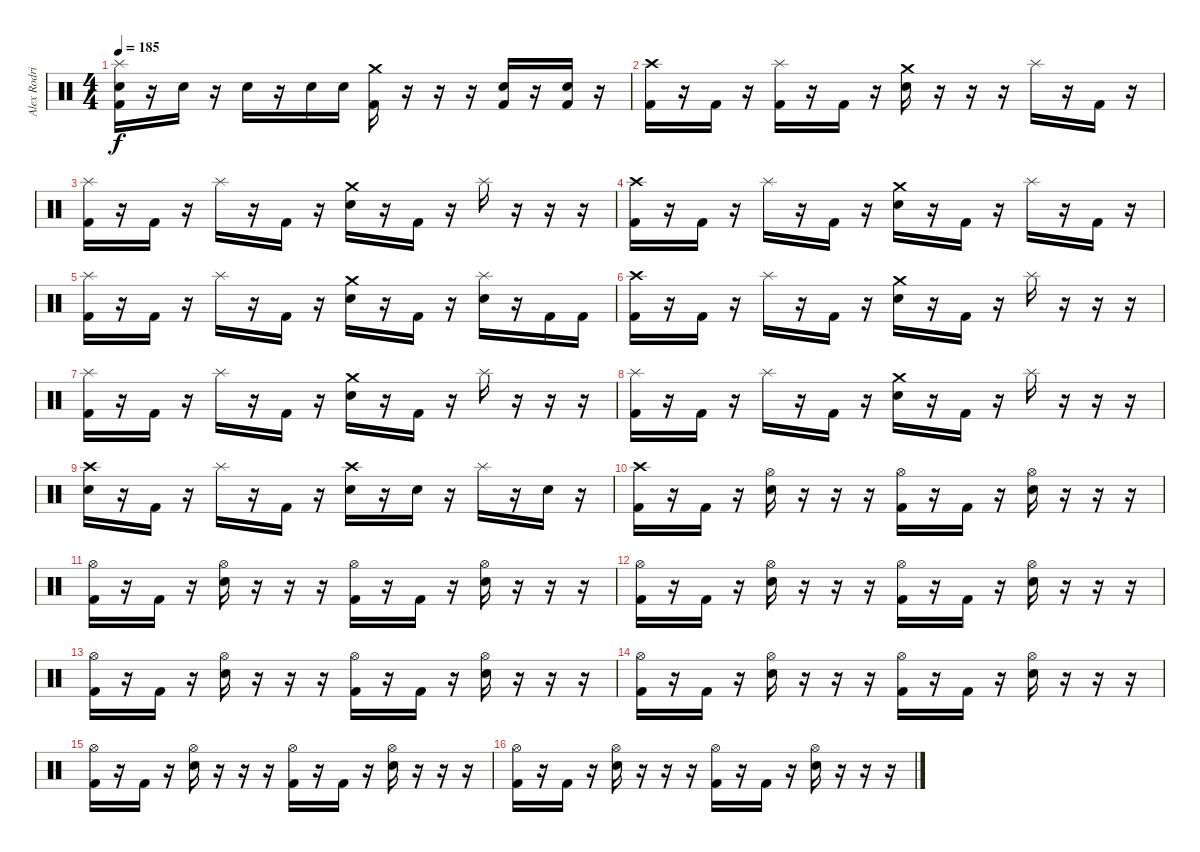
\track ("Alex Rodriguez" "Alex Rodri") {instrument percussion}
\staff {score}
\articulation defaults
\ts (4 4)
\tempo 185
\clef neutral
\ks c
("Splash (hit)" "Electric Snare (hit)" "Kick (hit) 2").16{dy f} r.16 "Electric Snare (hit)".16 r.16 "Electric Snare (hit)".16 r.16 "Electric Snare (hit)".16 "Electric Snare (hit)".16 ("Crash medium (hit)" "Kick (hit) 2").16 r.16 r.16 r.16 ("Electric Snare (hit)" "Kick (hit) 2").16 r.16 ("Electric Snare (hit)" "Kick (hit) 2").16 r.16 |
("Crash high (hit)" "Kick (hit) 2").16 r.16 "Kick (hit) 2".16 r.16 ("Splash (hit)" "Kick (hit) 2").16 r.16 "Kick (hit) 2".16 r.16 ("Crash medium (hit)" "Electric Snare (hit)").16 r.16 r.16 r.16 "Splash (hit)".16 r.16 "Kick (hit) 2".16 r.16 |
("Splash (hit)" "Kick (hit) 2").16 r.16 "Kick (hit) 2".16 r.16 "Splash (hit)".16 r.16 "Kick (hit) 2".16 r.16 ("Crash medium (hit)" "Electric Snare (hit)").16 r.16 "Kick (hit) 2".16 r.16 "Splash (hit)".16 r.16 r.16 r.16 |
("Crash high (hit)" "Kick (hit) 2").16 r.16 "Kick (hit) 2".16 r.16 "Splash (hit)".16 r.16 "Kick (hit) 2".16 r.16 ("Crash medium (hit)" "Electric Snare (hit)").16 r.16 "Kick (hit) 2".16 r.16 "Splash (hit)".16 r.16 "Kick (hit) 2".16 r.16 |
("Splash (hit)" "Kick (hit) 2").16 r.16 "Kick (hit) 2".16 r.16 "Splash (hit)".16 r.16 "Kick (hit) 2".16 r.16 ("Crash medium (hit)" "Electric Snare (hit)").16 r.16 "Kick (hit) 2".16 r.16 ("Splash (hit)" "Electric Snare (hit)").16 r.16 "Kick (hit) 2".16 "Kick (hit) 2".16 |
("Crash high (hit)" "Kick (hit) 2").16 r.16 "Kick (hit) 2".16 r.16 "Splash (hit)".16 r.16 "Kick (hit) 2".16 r.16 ("Crash medium (hit)" "Electric Snare (hit)").16 r.16 "Kick (hit) 2".16 r.16 "Splash (hit)".16 r.16 r.16 r.16 |
("Splash (hit)" "Kick (hit) 2").16 r.16 "Kick (hit) 2".16 r.16 "Splash (hit)".16 r.16 "Kick (hit) 2".16 r.16 ("Crash medium (hit)" "Electric Snare (hit)").16 r.16 "Kick (hit) 2".16 r.16 "Splash (hit)".16 r.16 r.16 r.16 |
("Splash (hit)" "Kick (hit) 2").16 r.16 "Kick (hit) 2".16 r.16 "Splash (hit)".16 r.16 "Kick (hit) 2".16 r.16 ("Crash medium (hit)" "Electric Snare (hit)").16 r.16 "Kick (hit) 2".16 r.16 "Splash (hit)".16 r.16 r.16 r.16 |
("Crash high (hit)" "Electric Snare (hit)").16 r.16 "Kick (hit) 2".16 r.16 "Splash (hit)".16 r.16 "Kick (hit) 2".16 r.16 ("Crash high (hit)" "Electric Snare (hit)").16 r.16 "Electric Snare (hit)".16 r.16 "Splash (hit)".16 r.16 "Electric Snare (hit)".16 r.16 |
("Crash high (hit)" "Kick (hit) 2").16 r.16 "Kick (hit) 2".16 r.16 ("Hi-Hat (open)" "Electric Snare (hit)").16 r.16 r.16 r.16 ("Hi-Hat (open)" "Kick (hit) 2").16 r.16 "Kick (hit) 2".16 r.16 ("Hi-Hat (open)" "Electric Snare (hit)").16 r.16 r.16 r.16 |
("Hi-Hat (open)" "Kick (hit) 2").16 r.16 "Kick (hit) 2".16 r.16 ("Hi-Hat (open)" "Electric Snare (hit)").16 r.16 r.16 r.16 ("Hi-Hat (open)" "Kick (hit) 2").16 r.16 "Kick (hit) 2".16 r.16 ("Hi-Hat (open)" "Electric Snare (hit)").16 r.16 r.16 r.16 |
("Hi-Hat (open)" "Kick (hit) 2").16 r.16 "Kick (hit) 2".16 r.16 ("Hi-Hat (open)" "Electric Snare (hit)").16 r.16 r.16 r.16 ("Hi-Hat (open)" "Kick (hit) 2").16 r.16 "Kick (hit) 2".16 r.16 ("Hi-Hat (open)" "Electric Snare (hit)").16 r.16 r.16 r.16 |
("Hi-Hat (open)" "Kick (hit) 2").16 r.16 "Kick (hit) 2".16 r.16 ("Hi-Hat (open)" "Electric Snare (hit)").16 r.16 r.16 r.16 ("Hi-Hat (open)" "Kick (hit) 2").16 r.16 "Kick (hit) 2".16 r.16 ("Hi-Hat (open)" "Electric Snare (hit)").16 r.16 r.16 r.16 |
("Hi-Hat (open)" "Kick (hit) 2").16 r.16 "Kick (hit) 2".16 r.16 ("Hi-Hat (open)" "Electric Snare (hit)").16 r.16 r.16 r.16 ("Hi-Hat (open)" "Kick (hit) 2").16 r.16 "Kick (hit) 2".16 r.16 ("Hi-Hat (open)" "Electric Snare (hit)").16 r.16 r.16 r.16 |
("Hi-Hat (open)" "Kick (hit) 2").16 r.16 "Kick (hit) 2".16 r.16 ("Hi-Hat (open)" "Electric Snare (hit)").16 r.16 r.16 r.16 ("Hi-Hat (open)" "Kick (hit) 2").16 r.16 "Kick (hit) 2".16 r.16 ("Hi-Hat (open)" "Electric Snare (hit)").16 r.16 r.16 r.16 |
("Hi-Hat (open)" "Kick (hit) 2").16 r.16 "Kick (hit) 2".16 r.16 ("Hi-Hat (open)" "Electric Snare (hit)").16 r.16 r.16 r.16 ("Hi-Hat (open)" "Kick (hit) 2").16 r.16 "Kick (hit) 2".16 r.16 ("Hi-Hat (open)" "Electric Snare (hit)").16 r.16 r.16 r.16
